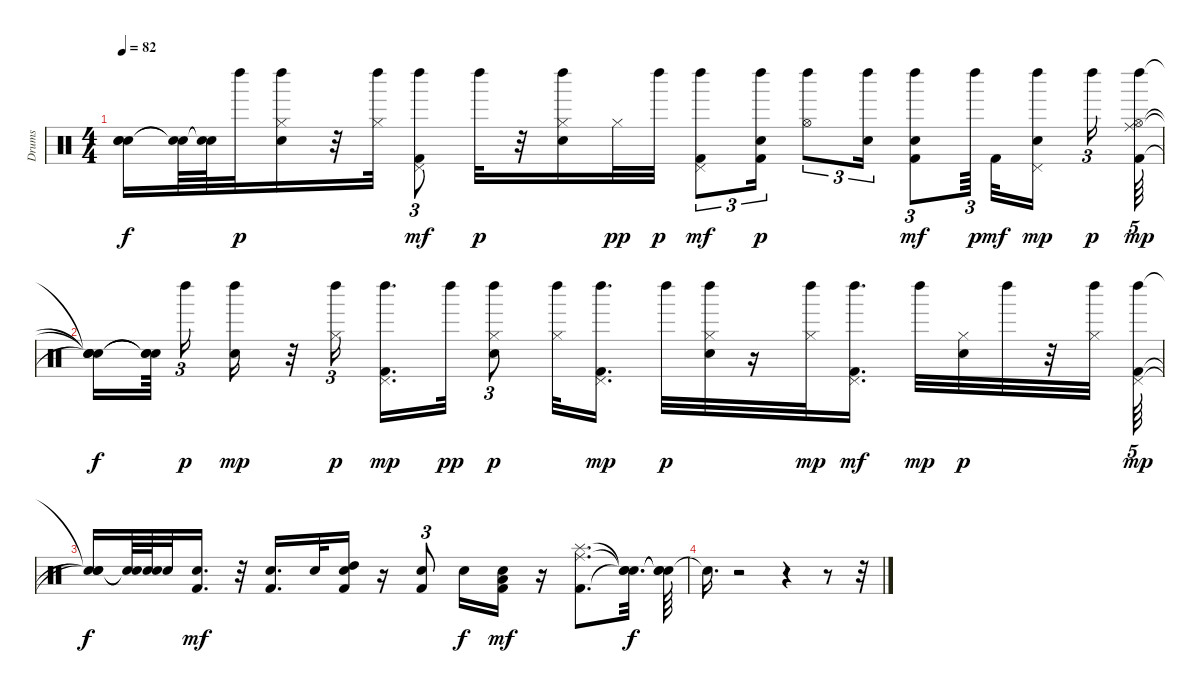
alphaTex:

\track ("Drums" "Drums") {instrument percussion}
\staff {score}
\articulation defaults
\ts (4 4)
\tempo 82
\clef neutral
\ks c
("Snare (hit)"{t} "Snare (hit)"{t} "Snare (hit)"{t}).16{dy f} ("Snare (hit)"{t} "Snare (hit)"{t}).64 ("Snare (hit)"{t} "Snare (hit)"{t}).64 "Left Maraca (hit)".32{dy p} ("Hi-Hat (closed)" "Hand Clap (hit)" "Left Maraca (hit)").16 r.32 ("Hi-Hat (closed)" "Left Maraca (hit)").32 ("Pedal Hi-Hat (hit)" "Kick (hit) 2" "Left Maraca (hit)").8{tu (3 2) dy mf} "Left Maraca (hit)".32{dy p} r.32 ("Hi-Hat (closed)" "Hand Clap (hit)" "Left Maraca (hit)").16 "Hi-Hat (closed)".32{dy pp} "Left Maraca (hit)".32{dy p} ("Pedal Hi-Hat (hit)" "Kick (hit) 2" "Left Maraca (hit)").8{tu (3 2) dy mf} ("Hand Clap (hit)" "Kick (hit) 2" "Left Maraca (hit)").16{tu (3 2) dy p} ("Hi-Hat (open)" "Left Maraca (hit)").8{tu (3 2)} ("Hand Clap (hit)" "Left Maraca (hit)").16{tu (3 2)} ("Hand Clap (hit)" "Kick (hit) 2" "Left Maraca (hit)").8{tu (3 2) dy mf} "Left Maraca (hit)".64{tu (3 2) dy p beam splitsecondary} "Kick (hit) 2".32{dy mf} ("Hand Clap (hit)" "Pedal Hi-Hat (hit)" "Left Maraca (hit)").16{dy mp beam splitsecondary} "Left Maraca (hit)".16{tu (3 2) dy p} ("Kick (hit) 2" "Ride (middle)" "Hi-Hat (open)" "Left Maraca (hit)").64{tu (5 4) dy mp} |
("Snare (hit)"{t} "Snare (hit)"{t} "Snare (hit)"{t} "Snare (hit)"{t}).16{dy f} ("Snare (hit)"{t} "Snare (hit)"{t} "Snare (hit)"{t}).64{beam splitsecondary} "Left Maraca (hit)".16{tu (3 2) dy p} ("Hand Clap (hit)" "Left Maraca (hit)").16{dy mp} r.32 ("Hi-Hat (closed)" "Left Maraca (hit)").16{tu (3 2) dy p} ("Kick (hit) 2" "Pedal Hi-Hat (hit)" "Left Maraca (hit)").16{d dy mp} "Left Maraca (hit)".32{dy pp} ("Hi-Hat (closed)" "Hand Clap (hit)" "Left Maraca (hit)").8{tu (3 2) dy p} ("Left Maraca (hit)" "Hi-Hat (closed)").32 ("Pedal Hi-Hat (hit)" "Kick (hit) 2" "Left Maraca (hit)").16{d dy mp} "Left Maraca (hit)".32{dy p} ("Hi-Hat (closed)" "Hand Clap (hit)" "Left Maraca (hit)").32 r.16 ("Hi-Hat (closed)" "Left Maraca (hit)").32{dy mp} ("Pedal Hi-Hat (hit)" "Kick (hit) 2" "Left Maraca (hit)").16{d dy mf} "Left Maraca (hit)".32{dy mp} ("Hi-Hat (closed)" "Hand Clap (hit)").32{dy p} "Left Maraca (hit)".32 r.32 ("Left Maraca (hit)" "Hi-Hat (closed)").32 ("Pedal Hi-Hat (hit)" "Kick (hit) 2" "Left Maraca (hit)").64{tu (5 4) dy mp} |
("Snare (hit)"{t} "Snare (hit)"{t} "Snare (hit)"{t}).16{dy f} ("Snare (hit)"{t} "Snare (hit)"{t}).64 ("Snare (hit)"{t} "Snare (hit)"{t}).64 "Hand Clap (hit)".32 ("Kick (hit) 2" "Hand Clap (hit)").16{d dy mf} r.32 ("Kick (hit) 2" "Hand Clap (hit)").16{d} "Hand Clap (hit)".32 ("Kick (hit) 2" "High Tom (hit)" "Hand Clap (hit)").16 r.16 ("Hand Clap (hit)" "Kick (hit) 2").8{tu (3 2)} "Hand Clap (hit)".16{dy f} ("Low Tom (hit)" "Kick (hit) 2" "Hand Clap (hit)").16{dy mf} r.16 ("Splash (hit)" "Kick (hit) 2" "Ride (middle)").8{d} ("Snare (hit)"{t} "Snare (hit)"{t} "Snare (hit)"{t}).32{d dy f} ("Snare (hit)"{t} "Snare (hit)"{t} "Snare (hit)"{t}).64 |
"Snare (hit)"{t}.16{d} r.2 r.4 r.8 r.32
